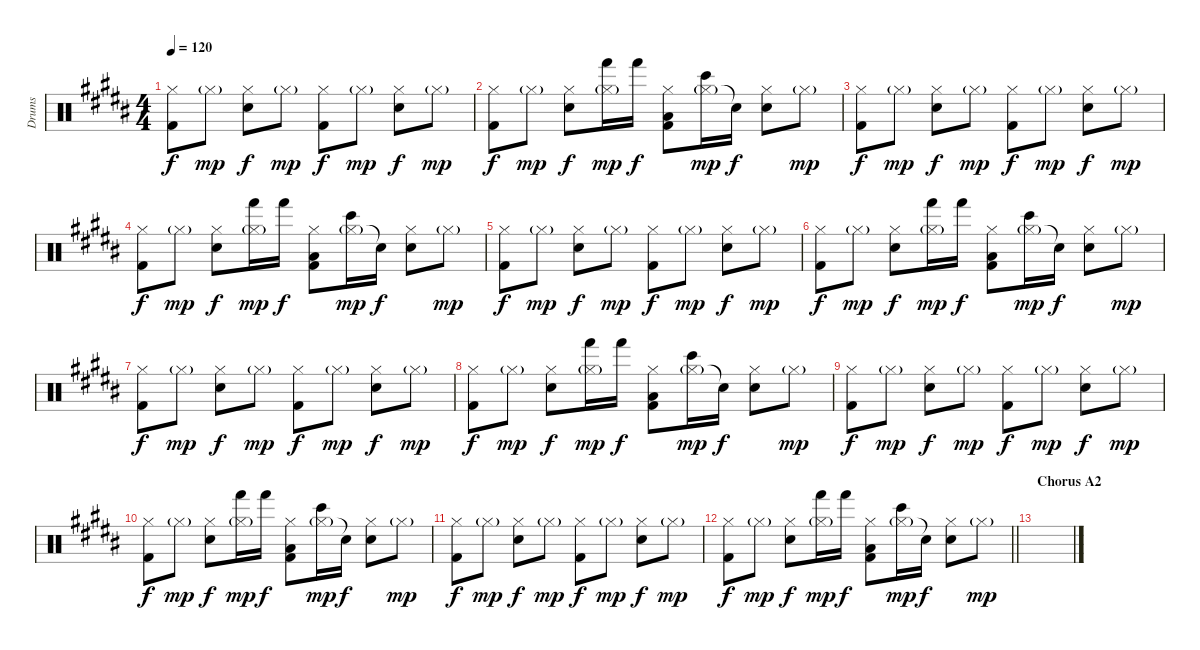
\track ("Drums" "Drums") {instrument percussion}
\staff {score}
\articulation defaults
\ts (4 4)
\tempo 120
\clef neutral
\ks g#minor
("Hi-Hat (closed)" "Kick (hit) 2").8{dy f} "Hi-Hat (closed)"{g}.8{dy mp} ("Hi-Hat (closed)" "Electric Snare (hit)").8{dy f} "Hi-Hat (closed)"{g}.8{dy mp} ("Hi-Hat (closed)" "Kick (hit) 2").8{dy f} "Hi-Hat (closed)"{g}.8{dy mp} ("Hi-Hat (closed)" "Electric Snare (hit)").8{dy f} "Hi-Hat (closed)"{g}.8{dy mp} |
("Hi-Hat (closed)" "Kick (hit) 2").8{dy f} "Hi-Hat (closed)"{g}.8{dy mp} ("Hi-Hat (closed)" "Electric Snare (hit)").8{dy f} ("Hi-Hat (closed)"{g} "Hand (hit)").16{dy mp} "Hand (hit)".16{dy f} ("Hi-Hat (closed)" "Low Tom (hit)" "Kick (hit) 2").8 ("Hi-Hat (closed)"{g} "Bongo High (hit)").16{dy mp} "Snare (hit)"{t}.16{dy f} ("Hi-Hat (closed)" "Electric Snare (hit)").8 "Hi-Hat (closed)"{g}.8{dy mp} |
("Hi-Hat (closed)" "Kick (hit) 2").8{dy f} "Hi-Hat (closed)"{g}.8{dy mp} ("Hi-Hat (closed)" "Electric Snare (hit)").8{dy f} "Hi-Hat (closed)"{g}.8{dy mp} ("Hi-Hat (closed)" "Kick (hit) 2").8{dy f} "Hi-Hat (closed)"{g}.8{dy mp} ("Hi-Hat (closed)" "Electric Snare (hit)").8{dy f} "Hi-Hat (closed)"{g}.8{dy mp} |
("Hi-Hat (closed)" "Kick (hit) 2").8{dy f} "Hi-Hat (closed)"{g}.8{dy mp} ("Hi-Hat (closed)" "Electric Snare (hit)").8{dy f} ("Hi-Hat (closed)"{g} "Hand (hit)").16{dy mp} "Hand (hit)".16{dy f} ("Hi-Hat (closed)" "Low Tom (hit)" "Kick (hit) 2").8 ("Hi-Hat (closed)"{g} "Bongo High (hit)").16{dy mp} "Snare (hit)"{t}.16{dy f} ("Hi-Hat (closed)" "Electric Snare (hit)").8 "Hi-Hat (closed)"{g}.8{dy mp} |
("Hi-Hat (closed)" "Kick (hit) 2").8{dy f} "Hi-Hat (closed)"{g}.8{dy mp} ("Hi-Hat (closed)" "Electric Snare (hit)").8{dy f} "Hi-Hat (closed)"{g}.8{dy mp} ("Hi-Hat (closed)" "Kick (hit) 2").8{dy f} "Hi-Hat (closed)"{g}.8{dy mp} ("Hi-Hat (closed)" "Electric Snare (hit)").8{dy f} "Hi-Hat (closed)"{g}.8{dy mp} |
("Hi-Hat (closed)" "Kick (hit) 2").8{dy f} "Hi-Hat (closed)"{g}.8{dy mp} ("Hi-Hat (closed)" "Electric Snare (hit)").8{dy f} ("Hi-Hat (closed)"{g} "Hand (hit)").16{dy mp} "Hand (hit)".16{dy f} ("Hi-Hat (closed)" "Low Tom (hit)" "Kick (hit) 2").8 ("Hi-Hat (closed)"{g} "Bongo High (hit)").16{dy mp} "Snare (hit)"{t}.16{dy f} ("Hi-Hat (closed)" "Electric Snare (hit)").8 "Hi-Hat (closed)"{g}.8{dy mp} |
("Hi-Hat (closed)" "Kick (hit) 2").8{dy f} "Hi-Hat (closed)"{g}.8{dy mp} ("Hi-Hat (closed)" "Electric Snare (hit)").8{dy f} "Hi-Hat (closed)"{g}.8{dy mp} ("Hi-Hat (closed)" "Kick (hit) 2").8{dy f} "Hi-Hat (closed)"{g}.8{dy mp} ("Hi-Hat (closed)" "Electric Snare (hit)").8{dy f} "Hi-Hat (closed)"{g}.8{dy mp} |
("Hi-Hat (closed)" "Kick (hit) 2").8{dy f} "Hi-Hat (closed)"{g}.8{dy mp} ("Hi-Hat (closed)" "Electric Snare (hit)").8{dy f} ("Hi-Hat (closed)"{g} "Hand (hit)").16{dy mp} "Hand (hit)".16{dy f} ("Hi-Hat (closed)" "Low Tom (hit)" "Kick (hit) 2").8 ("Hi-Hat (closed)"{g} "Bongo High (hit)").16{dy mp} "Snare (hit)"{t}.16{dy f} ("Hi-Hat (closed)" "Electric Snare (hit)").8 "Hi-Hat (closed)"{g}.8{dy mp} |
("Hi-Hat (closed)" "Kick (hit) 2").8{dy f} "Hi-Hat (closed)"{g}.8{dy mp} ("Hi-Hat (closed)" "Electric Snare (hit)").8{dy f} "Hi-Hat (closed)"{g}.8{dy mp} ("Hi-Hat (closed)" "Kick (hit) 2").8{dy f} "Hi-Hat (closed)"{g}.8{dy mp} ("Hi-Hat (closed)" "Electric Snare (hit)").8{dy f} "Hi-Hat (closed)"{g}.8{dy mp} |
("Hi-Hat (closed)" "Kick (hit) 2").8{dy f} "Hi-Hat (closed)"{g}.8{dy mp} ("Hi-Hat (closed)" "Electric Snare (hit)").8{dy f} ("Hi-Hat (closed)"{g} "Hand (hit)").16{dy mp} "Hand (hit)".16{dy f} ("Hi-Hat (closed)" "Low Tom (hit)" "Kick (hit) 2").8 ("Hi-Hat (closed)"{g} "Bongo High (hit)").16{dy mp} "Snare (hit)"{t}.16{dy f} ("Hi-Hat (closed)" "Electric Snare (hit)").8 "Hi-Hat (closed)"{g}.8{dy mp} |
("Hi-Hat (closed)" "Kick (hit) 2").8{dy f} "Hi-Hat (closed)"{g}.8{dy mp} ("Hi-Hat (closed)" "Electric Snare (hit)").8{dy f} "Hi-Hat (closed)"{g}.8{dy mp} ("Hi-Hat (closed)" "Kick (hit) 2").8{dy f} "Hi-Hat (closed)"{g}.8{dy mp} ("Hi-Hat (closed)" "Electric Snare (hit)").8{dy f} "Hi-Hat (closed)"{g}.8{dy mp} |
\barLineRight lightlight
("Hi-Hat (closed)" "Kick (hit) 2").8{dy f} "Hi-Hat (closed)"{g}.8{dy mp} ("Hi-Hat (closed)" "Electric Snare (hit)").8{dy f} ("Hi-Hat (closed)"{g} "Hand (hit)").16{dy mp} "Hand (hit)".16{dy f} ("Hi-Hat (closed)" "Low Tom (hit)" "Kick (hit) 2").8 ("Hi-Hat (closed)"{g} "Bongo High (hit)").16{dy mp} "Snare (hit)"{t}.16{dy f} ("Hi-Hat (closed)" "Electric Snare (hit)").8 "Hi-Hat (closed)"{g}.8{dy mp} |
\section ("" "Chorus A2")
